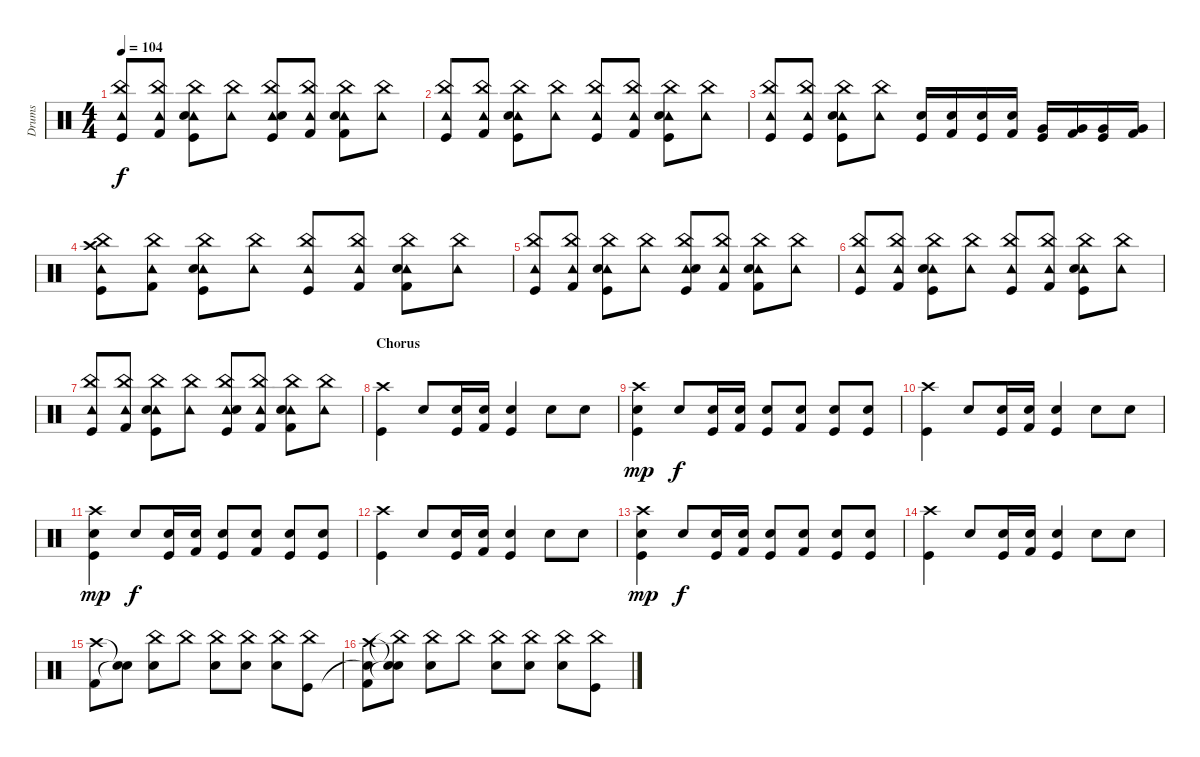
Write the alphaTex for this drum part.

\track ("Drums" "Drums") {instrument percussion}
\staff {score}
\articulation defaults
\ts (4 4)
\tempo 104
\clef neutral
\ks c
("Tambourine (hit)" "China (hit)" "Kick (hit)").8{dy f volume 12} ("Tambourine (hit)" "China (hit)" "Kick (hit) 2").8 ("Tambourine (hit)" "China (hit)" "Snare (hit) 2" "Kick (hit)").8 ("Tambourine (hit)" "China (hit)").8 ("Tambourine (hit)" "China (hit)" "Electric Snare (hit)" "Kick (hit)").8 ("Tambourine (hit)" "China (hit)" "Kick (hit) 2").8 ("Tambourine (hit)" "China (hit)" "Snare (hit) 2" "Kick (hit) 2").8 ("Tambourine (hit)" "China (hit)").8 |
("Tambourine (hit)" "China (hit)" "Kick (hit)").8{volume 12} ("Tambourine (hit)" "China (hit)" "Kick (hit) 2").8 ("Tambourine (hit)" "China (hit)" "Snare (hit) 2" "Kick (hit)").8 ("Tambourine (hit)" "China (hit)").8 ("Tambourine (hit)" "China (hit)" "Kick (hit)").8 ("Tambourine (hit)" "China (hit)" "Kick (hit) 2").8 ("Tambourine (hit)" "China (hit)" "Snare (hit) 2" "Kick (hit)").8 ("Tambourine (hit)" "China (hit)").8 |
("Tambourine (hit)" "China (hit)" "Kick (hit)").8{volume 12} ("Tambourine (hit)" "China (hit)" "Kick (hit)").8 ("Tambourine (hit)" "China (hit)" "Snare (hit) 2" "Kick (hit)").8 ("Tambourine (hit)" "China (hit)").8 ("Snare (hit) 2" "Kick (hit)").16 ("Electric Snare (hit)" "Kick (hit) 2").16 ("Snare (hit) 2" "Kick (hit)").16 ("Electric Snare (hit)" "Kick (hit) 2").16 ("Very Low Tom (hit)" "Kick (hit)").16 ("Very Low Tom (hit)" "Kick (hit) 2").16 ("Very Low Tom (hit)" "Kick (hit)").16 ("Very Low Tom (hit)" "Kick (hit) 2").16 |
("Tambourine (hit)" "China (hit)" "Kick (hit)" "Crash high (hit)").8{volume 12} ("Tambourine (hit)" "China (hit)" "Kick (hit) 2").8 ("Tambourine (hit)" "China (hit)" "Snare (hit) 2" "Kick (hit)").8 ("Tambourine (hit)" "China (hit)").8 ("Tambourine (hit)" "China (hit)" "Kick (hit)").8 ("Tambourine (hit)" "China (hit)" "Kick (hit) 2").8 ("Tambourine (hit)" "China (hit)" "Snare (hit) 2" "Kick (hit) 2").8 ("Tambourine (hit)" "China (hit)").8 |
("Tambourine (hit)" "China (hit)" "Kick (hit)").8{volume 12} ("Tambourine (hit)" "China (hit)" "Kick (hit) 2").8 ("Tambourine (hit)" "China (hit)" "Snare (hit) 2" "Kick (hit)").8 ("Tambourine (hit)" "China (hit)").8 ("Tambourine (hit)" "China (hit)" "Electric Snare (hit)" "Kick (hit)").8 ("Tambourine (hit)" "China (hit)" "Kick (hit) 2").8 ("Tambourine (hit)" "China (hit)" "Snare (hit) 2" "Kick (hit) 2").8 ("Tambourine (hit)" "China (hit)").8 |
("Tambourine (hit)" "China (hit)" "Kick (hit)").8{volume 12} ("Tambourine (hit)" "China (hit)" "Kick (hit) 2").8 ("Tambourine (hit)" "China (hit)" "Snare (hit) 2" "Kick (hit)").8 ("Tambourine (hit)" "China (hit)").8 ("Tambourine (hit)" "China (hit)" "Kick (hit)").8 ("Tambourine (hit)" "China (hit)" "Kick (hit) 2").8 ("Tambourine (hit)" "China (hit)" "Snare (hit) 2" "Kick (hit)").8 ("Tambourine (hit)" "China (hit)").8 |
("Tambourine (hit)" "China (hit)" "Kick (hit)").8{volume 12} ("Tambourine (hit)" "China (hit)" "Kick (hit) 2").8 ("Tambourine (hit)" "China (hit)" "Snare (hit) 2" "Kick (hit)").8 ("Tambourine (hit)" "China (hit)").8 ("Tambourine (hit)" "China (hit)" "Electric Snare (hit)" "Kick (hit)").8 ("Tambourine (hit)" "China (hit)" "Kick (hit) 2").8 ("Tambourine (hit)" "China (hit)" "Snare (hit) 2" "Kick (hit) 2").8 ("Tambourine (hit)" "China (hit)").8 |
\section ("" "Chorus")
("Crash high (hit)" "Kick (hit)").4{volume 12} "Snare (hit) 2".8 ("Snare (hit) 2" "Kick (hit)").16 ("Electric Snare (hit)" "Kick (hit) 2").16 ("Snare (hit) 2" "Kick (hit)").4 "Snare (hit) 2".8 "Snare (hit) 2".8 |
("Crash high (hit)" "Snare (hit) 2" "Kick (hit)").4{dy mp} "Snare (hit) 2".8{dy f} ("Snare (hit) 2" "Kick (hit)").16 ("Electric Snare (hit)" "Kick (hit) 2").16 ("Snare (hit) 2" "Kick (hit)").8 ("Electric Snare (hit)" "Kick (hit) 2").8 ("Snare (hit) 2" "Kick (hit)").8 ("Snare (hit) 2" "Kick (hit)").8 |
("Crash high (hit)" "Kick (hit)").4{volume 12} "Snare (hit) 2".8 ("Snare (hit) 2" "Kick (hit)").16 ("Electric Snare (hit)" "Kick (hit) 2").16 ("Snare (hit) 2" "Kick (hit)").4 "Snare (hit) 2".8 "Snare (hit) 2".8 |
("Crash high (hit)" "Snare (hit) 2" "Kick (hit)").4{dy mp} "Snare (hit) 2".8{dy f} ("Snare (hit) 2" "Kick (hit)").16 ("Electric Snare (hit)" "Kick (hit) 2").16 ("Snare (hit) 2" "Kick (hit)").8 ("Electric Snare (hit)" "Kick (hit) 2").8 ("Snare (hit) 2" "Kick (hit)").8 ("Snare (hit) 2" "Kick (hit)").8 |
("Crash high (hit)" "Kick (hit)").4{volume 12} "Snare (hit) 2".8 ("Snare (hit) 2" "Kick (hit)").16 ("Electric Snare (hit)" "Kick (hit) 2").16 ("Snare (hit) 2" "Kick (hit)").4 "Snare (hit) 2".8 "Snare (hit) 2".8 |
("Crash high (hit)" "Snare (hit) 2" "Kick (hit)").4{dy mp} "Snare (hit) 2".8{dy f} ("Snare (hit) 2" "Kick (hit)").16 ("Electric Snare (hit)" "Kick (hit) 2").16 ("Snare (hit) 2" "Kick (hit)").8 ("Electric Snare (hit)" "Kick (hit) 2").8 ("Snare (hit) 2" "Kick (hit)").8 ("Snare (hit) 2" "Kick (hit)").8 |
("Crash high (hit)" "Kick (hit)").4{volume 12} "Snare (hit) 2".8 ("Snare (hit) 2" "Kick (hit)").16 ("Electric Snare (hit)" "Kick (hit) 2").16 ("Snare (hit) 2" "Kick (hit)").4 "Snare (hit) 2".8 "Snare (hit) 2".8 |
("Crash high (hit)" "Kick (hit) 2").8 ("Snare (hit)"{t} "Snare (hit)"{t}).8 ("China (hit)" "Snare (hit) 2").8 "China (hit)".8 ("China (hit)" "Snare (hit) 2").8 ("China (hit)" "Snare (hit) 2").8 ("China (hit)" "Electric Snare (hit)").8 ("China (hit)" "Kick (hit)").8 |
("Crash high (hit)" "Snare (hit)"{t} "Kick (hit) 2").8 ("Snare (hit)"{t} "China (hit)"{t} "Snare (hit)"{t}).8 ("China (hit)" "Snare (hit) 2").8 "China (hit)".8 ("China (hit)" "Snare (hit) 2").8 ("China (hit)" "Snare (hit) 2").8 ("China (hit)" "Electric Snare (hit)").8 ("China (hit)" "Kick (hit)").8
